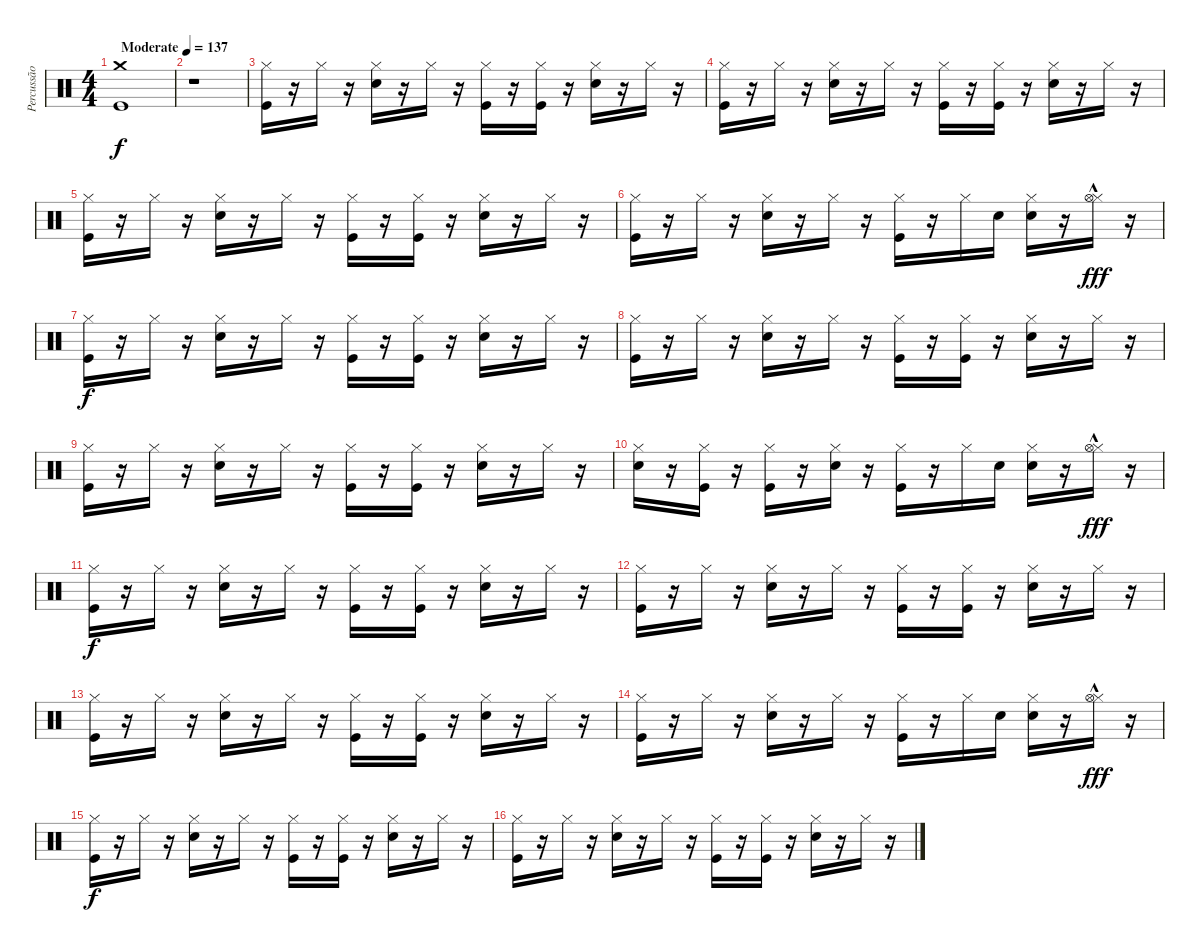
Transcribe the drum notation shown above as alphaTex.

\track ("Percussão" "Percussão") {instrument percussion}
\staff {score}
\articulation defaults
\ts (4 4)
\tempo (137 "Moderate")
\clef neutral
\ks c
("Crash medium (hit)" "Kick (hit)").1{dy f} |
r.1 |
("Kick (hit)" "Hi-Hat (closed)").16 r.16 "Hi-Hat (closed)".16 r.16 ("Hi-Hat (closed)" "Snare (hit) 2").16 r.16 "Hi-Hat (closed)".16 r.16 ("Hi-Hat (closed)" "Kick (hit)").16 r.16 ("Hi-Hat (closed)" "Kick (hit)").16 r.16 ("Snare (hit) 2" "Hi-Hat (closed)").16 r.16 "Hi-Hat (closed)".16 r.16 |
("Kick (hit)" "Hi-Hat (closed)").16 r.16 "Hi-Hat (closed)".16 r.16 ("Hi-Hat (closed)" "Snare (hit) 2").16 r.16 "Hi-Hat (closed)".16 r.16 ("Hi-Hat (closed)" "Kick (hit)").16 r.16 ("Hi-Hat (closed)" "Kick (hit)").16 r.16 ("Snare (hit) 2" "Hi-Hat (closed)").16 r.16 "Hi-Hat (closed)".16 r.16 |
("Kick (hit)" "Hi-Hat (closed)").16 r.16 "Hi-Hat (closed)".16 r.16 ("Hi-Hat (closed)" "Snare (hit) 2").16 r.16 "Hi-Hat (closed)".16 r.16 ("Hi-Hat (closed)" "Kick (hit)").16 r.16 ("Hi-Hat (closed)" "Kick (hit)").16 r.16 ("Snare (hit) 2" "Hi-Hat (closed)").16 r.16 "Hi-Hat (closed)".16 r.16 |
("Kick (hit)" "Hi-Hat (closed)").16 r.16 "Hi-Hat (closed)".16 r.16 ("Hi-Hat (closed)" "Snare (hit) 2").16 r.16 "Hi-Hat (closed)".16 r.16 ("Hi-Hat (closed)" "Kick (hit)").16 r.16 "Hi-Hat (closed)".16 "Snare (hit) 2".16 ("Snare (hit) 2" "Hi-Hat (closed)").16 r.16 ("Hi-Hat (closed)"{hac} "Hi-Hat (open)").16{dy fff} r.16 |
("Kick (hit)" "Hi-Hat (closed)").16{dy f} r.16 "Hi-Hat (closed)".16 r.16 ("Hi-Hat (closed)" "Snare (hit) 2").16 r.16 "Hi-Hat (closed)".16 r.16 ("Hi-Hat (closed)" "Kick (hit)").16 r.16 ("Hi-Hat (closed)" "Kick (hit)").16 r.16 ("Snare (hit) 2" "Hi-Hat (closed)").16 r.16 "Hi-Hat (closed)".16 r.16 |
("Kick (hit)" "Hi-Hat (closed)").16 r.16 "Hi-Hat (closed)".16 r.16 ("Hi-Hat (closed)" "Snare (hit) 2").16 r.16 "Hi-Hat (closed)".16 r.16 ("Hi-Hat (closed)" "Kick (hit)").16 r.16 ("Hi-Hat (closed)" "Kick (hit)").16 r.16 ("Snare (hit) 2" "Hi-Hat (closed)").16 r.16 "Hi-Hat (closed)".16 r.16 |
("Kick (hit)" "Hi-Hat (closed)").16 r.16 "Hi-Hat (closed)".16 r.16 ("Hi-Hat (closed)" "Snare (hit) 2").16 r.16 "Hi-Hat (closed)".16 r.16 ("Hi-Hat (closed)" "Kick (hit)").16 r.16 ("Hi-Hat (closed)" "Kick (hit)").16 r.16 ("Snare (hit) 2" "Hi-Hat (closed)").16 r.16 "Hi-Hat (closed)".16 r.16 |
("Snare (hit) 2" "Hi-Hat (closed)").16 r.16 ("Hi-Hat (closed)" "Kick (hit)").16 r.16 ("Hi-Hat (closed)" "Kick (hit)").16 r.16 ("Snare (hit) 2" "Hi-Hat (closed)").16 r.16 ("Hi-Hat (closed)" "Kick (hit)").16 r.16 "Hi-Hat (closed)".16 "Snare (hit) 2".16 ("Snare (hit) 2" "Hi-Hat (closed)").16 r.16 ("Hi-Hat (closed)"{hac} "Hi-Hat (open)").16{dy fff} r.16 |
("Kick (hit)" "Hi-Hat (closed)").16{dy f} r.16 "Hi-Hat (closed)".16 r.16 ("Hi-Hat (closed)" "Snare (hit) 2").16 r.16 "Hi-Hat (closed)".16 r.16 ("Hi-Hat (closed)" "Kick (hit)").16 r.16 ("Hi-Hat (closed)" "Kick (hit)").16 r.16 ("Snare (hit) 2" "Hi-Hat (closed)").16 r.16 "Hi-Hat (closed)".16 r.16 |
("Kick (hit)" "Hi-Hat (closed)").16 r.16 "Hi-Hat (closed)".16 r.16 ("Hi-Hat (closed)" "Snare (hit) 2").16 r.16 "Hi-Hat (closed)".16 r.16 ("Hi-Hat (closed)" "Kick (hit)").16 r.16 ("Hi-Hat (closed)" "Kick (hit)").16 r.16 ("Snare (hit) 2" "Hi-Hat (closed)").16 r.16 "Hi-Hat (closed)".16 r.16 |
("Kick (hit)" "Hi-Hat (closed)").16 r.16 "Hi-Hat (closed)".16 r.16 ("Hi-Hat (closed)" "Snare (hit) 2").16 r.16 "Hi-Hat (closed)".16 r.16 ("Hi-Hat (closed)" "Kick (hit)").16 r.16 ("Hi-Hat (closed)" "Kick (hit)").16 r.16 ("Snare (hit) 2" "Hi-Hat (closed)").16 r.16 "Hi-Hat (closed)".16 r.16 |
("Kick (hit)" "Hi-Hat (closed)").16 r.16 "Hi-Hat (closed)".16 r.16 ("Hi-Hat (closed)" "Snare (hit) 2").16 r.16 "Hi-Hat (closed)".16 r.16 ("Hi-Hat (closed)" "Kick (hit)").16 r.16 "Hi-Hat (closed)".16 "Snare (hit) 2".16 ("Snare (hit) 2" "Hi-Hat (closed)").16 r.16 ("Hi-Hat (closed)"{hac} "Hi-Hat (open)").16{dy fff} r.16 |
("Kick (hit)" "Hi-Hat (closed)").16{dy f} r.16 "Hi-Hat (closed)".16 r.16 ("Hi-Hat (closed)" "Snare (hit) 2").16 r.16 "Hi-Hat (closed)".16 r.16 ("Hi-Hat (closed)" "Kick (hit)").16 r.16 ("Hi-Hat (closed)" "Kick (hit)").16 r.16 ("Snare (hit) 2" "Hi-Hat (closed)").16 r.16 "Hi-Hat (closed)".16 r.16 |
("Kick (hit)" "Hi-Hat (closed)").16 r.16 "Hi-Hat (closed)".16 r.16 ("Hi-Hat (closed)" "Snare (hit) 2").16 r.16 "Hi-Hat (closed)".16 r.16 ("Hi-Hat (closed)" "Kick (hit)").16 r.16 ("Hi-Hat (closed)" "Kick (hit)").16 r.16 ("Snare (hit) 2" "Hi-Hat (closed)").16 r.16 "Hi-Hat (closed)".16 r.16
